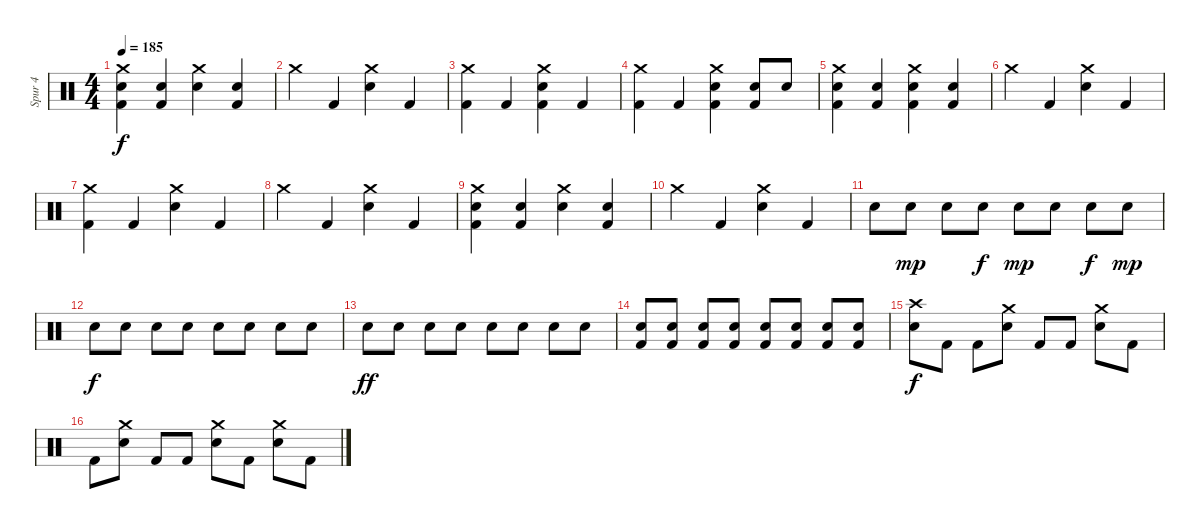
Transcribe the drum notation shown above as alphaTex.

\track ("Spur 4" "Spur 4") {instrument percussion}
\staff {score}
\articulation defaults
\ts (4 4)
\tempo 185
\clef neutral
\ks c
("Crash medium (hit)" "Electric Snare (hit)" "Kick (hit) 2").4{dy f} ("Electric Snare (hit)" "Kick (hit) 2").4 ("Crash medium (hit)" "Electric Snare (hit)").4 ("Electric Snare (hit)" "Kick (hit) 2").4 |
"Crash medium (hit)".4 "Kick (hit) 2".4 ("Crash medium (hit)" "Electric Snare (hit)").4 "Kick (hit) 2".4 |
("Crash medium (hit)" "Kick (hit) 2").4 "Kick (hit) 2".4 ("Crash medium (hit)" "Electric Snare (hit)" "Kick (hit) 2").4 "Kick (hit) 2".4 |
("Crash medium (hit)" "Kick (hit) 2").4 "Kick (hit) 2".4 ("Crash medium (hit)" "Electric Snare (hit)" "Kick (hit) 2").4 ("Electric Snare (hit)" "Kick (hit) 2").8 "Electric Snare (hit)".8 |
("Crash medium (hit)" "Electric Snare (hit)" "Kick (hit) 2").4 ("Electric Snare (hit)" "Kick (hit) 2").4 ("Crash medium (hit)" "Electric Snare (hit)" "Kick (hit) 2").4 ("Electric Snare (hit)" "Kick (hit) 2").4 |
"Crash medium (hit)".4 "Kick (hit) 2".4 ("Crash medium (hit)" "Electric Snare (hit)").4 "Kick (hit) 2".4 |
("Crash medium (hit)" "Kick (hit) 2").4 "Kick (hit) 2".4 ("Crash medium (hit)" "Electric Snare (hit)").4 "Kick (hit) 2".4 |
"Crash medium (hit)".4 "Kick (hit) 2".4 ("Crash medium (hit)" "Electric Snare (hit)").4 "Kick (hit) 2".4 |
("Crash medium (hit)" "Electric Snare (hit)" "Kick (hit) 2").4 ("Electric Snare (hit)" "Kick (hit) 2").4 ("Crash medium (hit)" "Electric Snare (hit)").4 ("Electric Snare (hit)" "Kick (hit) 2").4 |
"Crash medium (hit)".4 "Kick (hit) 2".4 ("Crash medium (hit)" "Electric Snare (hit)").4 "Kick (hit) 2".4 |
"Electric Snare (hit)".8 "Electric Snare (hit)".8{dy mp} "Electric Snare (hit)".8 "Electric Snare (hit)".8{dy f} "Electric Snare (hit)".8{dy mp} "Electric Snare (hit)".8 "Electric Snare (hit)".8{dy f} "Electric Snare (hit)".8{dy mp} |
"Electric Snare (hit)".8{dy f} "Electric Snare (hit)".8 "Electric Snare (hit)".8 "Electric Snare (hit)".8 "Electric Snare (hit)".8 "Electric Snare (hit)".8 "Electric Snare (hit)".8 "Electric Snare (hit)".8 |
"Electric Snare (hit)".8{dy ff} "Electric Snare (hit)".8 "Electric Snare (hit)".8 "Electric Snare (hit)".8 "Electric Snare (hit)".8 "Electric Snare (hit)".8 "Electric Snare (hit)".8 "Electric Snare (hit)".8 |
("Electric Snare (hit)" "Kick (hit) 2").8 ("Electric Snare (hit)" "Kick (hit) 2").8 ("Electric Snare (hit)" "Kick (hit) 2").8 ("Electric Snare (hit)" "Kick (hit) 2").8 ("Electric Snare (hit)" "Kick (hit) 2").8 ("Electric Snare (hit)" "Kick (hit) 2").8 ("Electric Snare (hit)" "Kick (hit) 2").8 ("Electric Snare (hit)" "Kick (hit) 2").8 |
("Crash high (hit)" "Electric Snare (hit)").8{dy f} "Kick (hit) 2".8 "Kick (hit) 2".8 ("Crash medium (hit)" "Electric Snare (hit)").8 "Kick (hit) 2".8 "Kick (hit) 2".8 ("Crash medium (hit)" "Electric Snare (hit)").8 "Kick (hit) 2".8 |
"Kick (hit) 2".8 ("Crash medium (hit)" "Electric Snare (hit)").8 "Kick (hit) 2".8 "Kick (hit) 2".8 ("Crash medium (hit)" "Electric Snare (hit)").8 "Kick (hit) 2".8 ("Crash medium (hit)" "Electric Snare (hit)").8 "Kick (hit) 2".8
